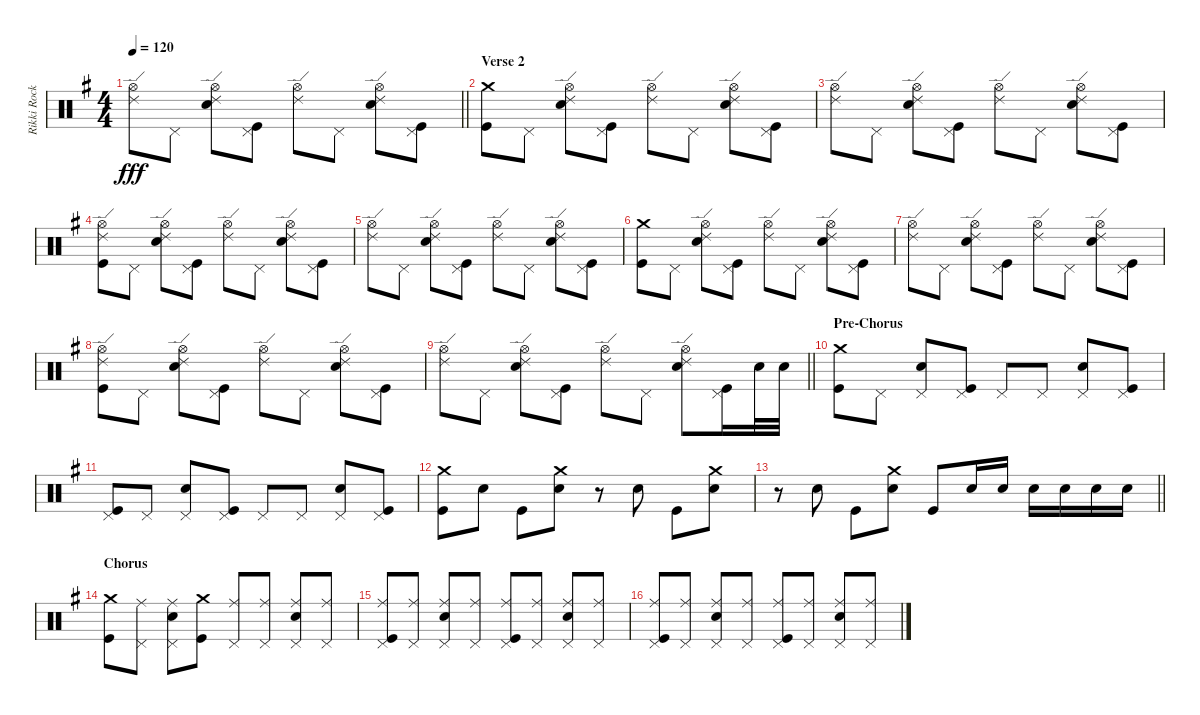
\track ("Rikki Rocket: Drums" "Rikki Rock") {instrument percussion}
\staff {score}
\articulation defaults
\ts (4 4)
\tempo 120
\clef neutral
\barLineRight lightlight
\ks g
("Hi-Hat (open)" "Ride (edge) 2").8{dy fff} "Pedal Hi-Hat (hit)".8 ("Hi-Hat (open)" "Ride (edge) 2" "Electric Snare (hit)").8 ("Pedal Hi-Hat (hit)" "Kick (hit)").8 ("Hi-Hat (open)" "Ride (edge) 2").8 "Pedal Hi-Hat (hit)".8 ("Hi-Hat (open)" "Ride (edge) 2" "Electric Snare (hit)").8 ("Pedal Hi-Hat (hit)" "Kick (hit)").8 |
\section ("" "Verse 2")
("Crash medium (hit)" "Kick (hit)").8 "Pedal Hi-Hat (hit)".8 ("Hi-Hat (open)" "Ride (edge) 2" "Electric Snare (hit)").8 ("Pedal Hi-Hat (hit)" "Kick (hit)").8 ("Hi-Hat (open)" "Ride (edge) 2").8 "Pedal Hi-Hat (hit)".8 ("Hi-Hat (open)" "Ride (edge) 2" "Electric Snare (hit)").8 ("Pedal Hi-Hat (hit)" "Kick (hit)").8 |
("Hi-Hat (open)" "Ride (edge) 2").8 "Pedal Hi-Hat (hit)".8 ("Hi-Hat (open)" "Ride (edge) 2" "Electric Snare (hit)").8 ("Pedal Hi-Hat (hit)" "Kick (hit)").8 ("Hi-Hat (open)" "Ride (edge) 2").8 "Pedal Hi-Hat (hit)".8 ("Hi-Hat (open)" "Ride (edge) 2" "Electric Snare (hit)").8 ("Pedal Hi-Hat (hit)" "Kick (hit)").8 |
("Hi-Hat (open)" "Ride (edge) 2" "Kick (hit)").8 "Pedal Hi-Hat (hit)".8 ("Hi-Hat (open)" "Ride (edge) 2" "Electric Snare (hit)").8 ("Pedal Hi-Hat (hit)" "Kick (hit)").8 ("Hi-Hat (open)" "Ride (edge) 2").8 "Pedal Hi-Hat (hit)".8 ("Hi-Hat (open)" "Ride (edge) 2" "Electric Snare (hit)").8 ("Pedal Hi-Hat (hit)" "Kick (hit)").8 |
("Hi-Hat (open)" "Ride (edge) 2").8 "Pedal Hi-Hat (hit)".8 ("Hi-Hat (open)" "Ride (edge) 2" "Electric Snare (hit)").8 ("Pedal Hi-Hat (hit)" "Kick (hit)").8 ("Hi-Hat (open)" "Ride (edge) 2").8 "Pedal Hi-Hat (hit)".8 ("Hi-Hat (open)" "Ride (edge) 2" "Electric Snare (hit)").8 ("Pedal Hi-Hat (hit)" "Kick (hit)").8 |
("Crash medium (hit)" "Kick (hit)").8 "Pedal Hi-Hat (hit)".8 ("Hi-Hat (open)" "Ride (edge) 2" "Electric Snare (hit)").8 ("Pedal Hi-Hat (hit)" "Kick (hit)").8 ("Hi-Hat (open)" "Ride (edge) 2").8 "Pedal Hi-Hat (hit)".8 ("Hi-Hat (open)" "Ride (edge) 2" "Electric Snare (hit)").8 ("Pedal Hi-Hat (hit)" "Kick (hit)").8 |
("Hi-Hat (open)" "Ride (edge) 2").8 "Pedal Hi-Hat (hit)".8 ("Hi-Hat (open)" "Ride (edge) 2" "Electric Snare (hit)").8 ("Pedal Hi-Hat (hit)" "Kick (hit)").8 ("Hi-Hat (open)" "Ride (edge) 2").8 "Pedal Hi-Hat (hit)".8 ("Hi-Hat (open)" "Ride (edge) 2" "Electric Snare (hit)").8 ("Pedal Hi-Hat (hit)" "Kick (hit)").8 |
("Hi-Hat (open)" "Ride (edge) 2" "Kick (hit)").8 "Pedal Hi-Hat (hit)".8 ("Hi-Hat (open)" "Ride (edge) 2" "Electric Snare (hit)").8 ("Pedal Hi-Hat (hit)" "Kick (hit)").8 ("Hi-Hat (open)" "Ride (edge) 2").8 "Pedal Hi-Hat (hit)".8 ("Hi-Hat (open)" "Ride (edge) 2" "Electric Snare (hit)").8 ("Pedal Hi-Hat (hit)" "Kick (hit)").8 |
\barLineRight lightlight
("Hi-Hat (open)" "Ride (edge) 2").8 "Pedal Hi-Hat (hit)".8 ("Hi-Hat (open)" "Ride (edge) 2" "Electric Snare (hit)").8 ("Pedal Hi-Hat (hit)" "Kick (hit)").8 ("Hi-Hat (open)" "Ride (edge) 2").8 "Pedal Hi-Hat (hit)".8 ("Hi-Hat (open)" "Ride (edge) 2" "Electric Snare (hit)").8 ("Pedal Hi-Hat (hit)" "Kick (hit)").16 "Electric Snare (hit)".32 "Electric Snare (hit)".32 |
\section ("" "Pre-Chorus")
("Crash medium (hit)" "Kick (hit)").8 "Pedal Hi-Hat (hit)".8 ("Pedal Hi-Hat (hit)" "Electric Snare (hit)").8 ("Pedal Hi-Hat (hit)" "Kick (hit)").8 "Pedal Hi-Hat (hit)".8 "Pedal Hi-Hat (hit)".8 ("Pedal Hi-Hat (hit)" "Electric Snare (hit)").8 ("Pedal Hi-Hat (hit)" "Kick (hit)").8 |
("Pedal Hi-Hat (hit)" "Kick (hit)").8 "Pedal Hi-Hat (hit)".8 ("Pedal Hi-Hat (hit)" "Electric Snare (hit)").8 ("Pedal Hi-Hat (hit)" "Kick (hit)").8 "Pedal Hi-Hat (hit)".8 "Pedal Hi-Hat (hit)".8 ("Pedal Hi-Hat (hit)" "Electric Snare (hit)").8 ("Pedal Hi-Hat (hit)" "Kick (hit)").8 |
("Crash medium (hit)" "Kick (hit)").8 "Electric Snare (hit)".8 "Kick (hit)".8 ("Crash medium (hit)" "Electric Snare (hit)").8 r.8 "Electric Snare (hit)".8 "Kick (hit)".8 ("Crash medium (hit)" "Electric Snare (hit)").8 |
\barLineRight lightlight
r.8 "Electric Snare (hit)".8 "Kick (hit)".8 ("Crash medium (hit)" "Electric Snare (hit)").8 "Kick (hit)".8 "Electric Snare (hit)".16 "Electric Snare (hit)".16 "Electric Snare (hit)".16 "Electric Snare (hit)".16 "Electric Snare (hit)".16 "Electric Snare (hit)".16 |
\section ("" "Chorus")
("Crash medium (hit)" "Kick (hit)").8 ("Ride (middle)" "Pedal Hi-Hat (hit)").8 ("Ride (middle)" "Pedal Hi-Hat (hit)" "Electric Snare (hit)").8 ("Crash medium (hit)" "Kick (hit)").8 ("Ride (middle)" "Pedal Hi-Hat (hit)").8 ("Ride (middle)" "Pedal Hi-Hat (hit)").8 ("Ride (middle)" "Pedal Hi-Hat (hit)" "Electric Snare (hit)").8 ("Ride (middle)" "Pedal Hi-Hat (hit)").8 |
("Ride (middle)" "Pedal Hi-Hat (hit)" "Kick (hit)").8 ("Ride (middle)" "Pedal Hi-Hat (hit)").8 ("Ride (middle)" "Pedal Hi-Hat (hit)" "Electric Snare (hit)").8 ("Ride (middle)" "Pedal Hi-Hat (hit)").8 ("Ride (middle)" "Pedal Hi-Hat (hit)" "Kick (hit)").8 ("Ride (middle)" "Pedal Hi-Hat (hit)").8 ("Ride (middle)" "Pedal Hi-Hat (hit)" "Electric Snare (hit)").8 ("Ride (middle)" "Pedal Hi-Hat (hit)").8 |
("Ride (middle)" "Pedal Hi-Hat (hit)" "Kick (hit)").8 ("Ride (middle)" "Pedal Hi-Hat (hit)").8 ("Ride (middle)" "Pedal Hi-Hat (hit)" "Electric Snare (hit)").8 ("Ride (middle)" "Pedal Hi-Hat (hit)").8 ("Ride (middle)" "Pedal Hi-Hat (hit)" "Kick (hit)").8 ("Ride (middle)" "Pedal Hi-Hat (hit)").8 ("Ride (middle)" "Pedal Hi-Hat (hit)" "Electric Snare (hit)").8 ("Ride (middle)" "Pedal Hi-Hat (hit)").8
